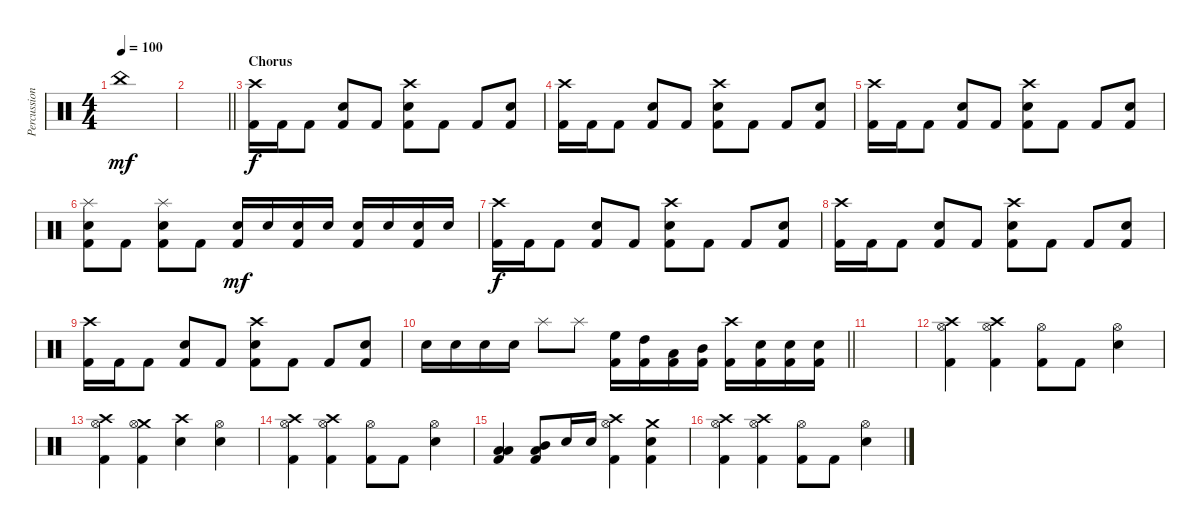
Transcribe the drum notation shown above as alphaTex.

\track ("Percussion" "Percussion") {instrument percussion}
\staff {score}
\articulation defaults
\ts (4 4)
\tempo 100
\clef neutral
\ks c "China (hit)".1{dy mf}
|
\barLineRight lightlight
|
\section ("" "Chorus")
("Crash high (hit)" "Kick (hit) 2").16{dy f} "Kick (hit) 2".16 "Kick (hit) 2".8 ("Snare (hit) 2" "Kick (hit) 2").8 "Kick (hit) 2".8 ("Crash high (hit)" "Snare (hit) 2" "Kick (hit) 2").8 "Kick (hit) 2".8 "Kick (hit) 2".8 ("Snare (hit) 2" "Kick (hit) 2").8 |
("Crash high (hit)" "Kick (hit) 2").16 "Kick (hit) 2".16 "Kick (hit) 2".8 ("Snare (hit) 2" "Kick (hit) 2").8 "Kick (hit) 2".8 ("Crash high (hit)" "Snare (hit) 2" "Kick (hit) 2").8 "Kick (hit) 2".8 "Kick (hit) 2".8 ("Snare (hit) 2" "Kick (hit) 2").8 |
("Crash high (hit)" "Kick (hit) 2").16 "Kick (hit) 2".16 "Kick (hit) 2".8 ("Snare (hit) 2" "Kick (hit) 2").8 "Kick (hit) 2".8 ("Crash high (hit)" "Snare (hit) 2" "Kick (hit) 2").8 "Kick (hit) 2".8 "Kick (hit) 2".8 ("Snare (hit) 2" "Kick (hit) 2").8 |
("Splash (hit)" "Snare (hit) 2" "Kick (hit) 2").8 "Kick (hit) 2".8 ("Splash (hit)" "Snare (hit) 2" "Kick (hit) 2").8 "Kick (hit) 2".8 ("Snare (hit) 2" "Kick (hit) 2").16{dy mf} "Snare (hit) 2".16 ("Snare (hit) 2" "Kick (hit) 2").16 "Snare (hit) 2".16 ("Snare (hit) 2" "Kick (hit) 2").16 "Snare (hit) 2".16 ("Snare (hit) 2" "Kick (hit) 2").16 "Snare (hit) 2".16 |
("Crash high (hit)" "Kick (hit) 2").16{dy f} "Kick (hit) 2".16 "Kick (hit) 2".8 ("Snare (hit) 2" "Kick (hit) 2").8 "Kick (hit) 2".8 ("Crash high (hit)" "Snare (hit) 2" "Kick (hit) 2").8 "Kick (hit) 2".8 "Kick (hit) 2".8 ("Snare (hit) 2" "Kick (hit) 2").8 |
("Crash high (hit)" "Kick (hit) 2").16 "Kick (hit) 2".16 "Kick (hit) 2".8 ("Snare (hit) 2" "Kick (hit) 2").8 "Kick (hit) 2".8 ("Crash high (hit)" "Snare (hit) 2" "Kick (hit) 2").8 "Kick (hit) 2".8 "Kick (hit) 2".8 ("Snare (hit) 2" "Kick (hit) 2").8 |
("Crash high (hit)" "Kick (hit) 2").16 "Kick (hit) 2".16 "Kick (hit) 2".8 ("Snare (hit) 2" "Kick (hit) 2").8 "Kick (hit) 2".8 ("Crash high (hit)" "Snare (hit) 2" "Kick (hit) 2").8 "Kick (hit) 2".8 "Kick (hit) 2".8 ("Snare (hit) 2" "Kick (hit) 2").8 |
\barLineRight lightlight "Snare (hit) 2".16 "Snare (hit) 2".16 "Snare (hit) 2".16 "Snare (hit) 2".16 "Splash (hit)".8 "Splash (hit)".8
("High Floor Tom (hit)" "Kick (hit) 2").16 ("High Tom (hit)" "Kick (hit) 2").16 ("Low Tom (hit)" "Kick (hit) 2").16 ("Mid Tom (hit)" "Kick (hit) 2").16 ("Crash high (hit)" "Kick (hit) 2").16 ("Snare (hit) 2" "Kick (hit) 2").16 ("Snare (hit) 2" "Kick (hit) 2").16 ("Snare (hit) 2" "Kick (hit) 2").16 |
|
("Crash high (hit)" "Hi-Hat (open)" "Kick (hit) 2").4 ("Crash high (hit)" "Hi-Hat (open)" "Kick (hit) 2").4 ("Hi-Hat (open)" "Kick (hit) 2").8 "Kick (hit) 2".8 ("Hi-Hat (open)" "Snare (hit) 2").4 |
("Crash high (hit)" "Hi-Hat (open)" "Kick (hit) 2").4 ("Crash medium (hit)" "Hi-Hat (open)" "Kick (hit) 2").4 ("Crash high (hit)" "Snare (hit) 2").4 ("Hi-Hat (open)" "Snare (hit) 2").4 |
("Crash high (hit)" "Hi-Hat (open)" "Kick (hit) 2").4 ("Crash high (hit)" "Hi-Hat (open)" "Kick (hit) 2").4 ("Hi-Hat (open)" "Kick (hit) 2").8 "Kick (hit) 2".8 ("Hi-Hat (open)" "Snare (hit) 2").4 |
("Low Tom (hit)" "Low Floor Tom (hit)" "Kick (hit) 2").4 ("Mid Tom (hit)" "Low Tom (hit)" "Kick (hit) 2").8 "Snare (hit) 2".16 "Snare (hit) 2".16 ("Crash high (hit)" "Hi-Hat (open)" "Kick (hit) 2").4 ("Crash medium (hit)" "Snare (hit) 2" "Kick (hit) 2").4 |
("Crash high (hit)" "Hi-Hat (open)" "Kick (hit) 2").4 ("Crash high (hit)" "Hi-Hat (open)" "Kick (hit) 2").4 ("Hi-Hat (open)" "Kick (hit) 2").8 "Kick (hit) 2".8 ("Hi-Hat (open)" "Snare (hit) 2").4
